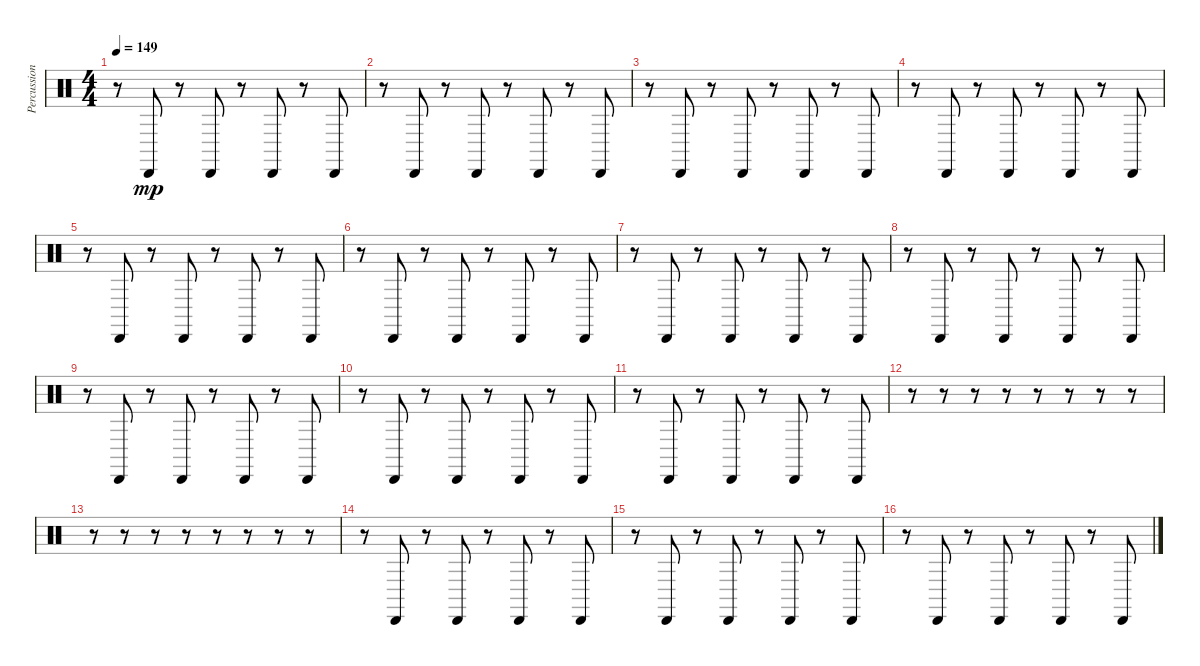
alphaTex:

\track ("Percussion 2" "Percussion") {instrument percussion}
\staff {score}
\articulation defaults
\ts (4 4)
\tempo 149
\clef neutral
\ks c
r.8{dy mp} "Cabasa (hit)".8 r.8 "Cabasa (hit)".8 r.8 "Cabasa (hit)".8 r.8 "Cabasa (hit)".8 |
r.8 "Cabasa (hit)".8 r.8 "Cabasa (hit)".8 r.8 "Cabasa (hit)".8 r.8 "Cabasa (hit)".8 |
r.8 "Cabasa (hit)".8 r.8 "Cabasa (hit)".8 r.8 "Cabasa (hit)".8 r.8 "Cabasa (hit)".8 |
r.8 "Cabasa (hit)".8 r.8 "Cabasa (hit)".8 r.8 "Cabasa (hit)".8 r.8 "Cabasa (hit)".8 |
r.8 "Cabasa (hit)".8 r.8 "Cabasa (hit)".8 r.8 "Cabasa (hit)".8 r.8 "Cabasa (hit)".8 |
r.8 "Cabasa (hit)".8 r.8 "Cabasa (hit)".8 r.8 "Cabasa (hit)".8 r.8 "Cabasa (hit)".8 |
r.8 "Cabasa (hit)".8 r.8 "Cabasa (hit)".8 r.8 "Cabasa (hit)".8 r.8 "Cabasa (hit)".8 |
r.8 "Cabasa (hit)".8 r.8 "Cabasa (hit)".8 r.8 "Cabasa (hit)".8 r.8 "Cabasa (hit)".8 |
r.8 "Cabasa (hit)".8 r.8 "Cabasa (hit)".8 r.8 "Cabasa (hit)".8 r.8 "Cabasa (hit)".8 |
r.8 "Cabasa (hit)".8 r.8 "Cabasa (hit)".8 r.8 "Cabasa (hit)".8 r.8 "Cabasa (hit)".8 |
r.8 "Cabasa (hit)".8 r.8 "Cabasa (hit)".8 r.8 "Cabasa (hit)".8 r.8 "Cabasa (hit)".8 |
r.8 r.8 r.8 r.8 r.8 r.8 r.8 r.8 |
r.8 r.8 r.8 r.8 r.8 r.8 r.8 r.8 |
r.8 "Cabasa (hit)".8 r.8 "Cabasa (hit)".8 r.8 "Cabasa (hit)".8 r.8 "Cabasa (hit)".8 |
r.8 "Cabasa (hit)".8 r.8 "Cabasa (hit)".8 r.8 "Cabasa (hit)".8 r.8 "Cabasa (hit)".8 |
r.8 "Cabasa (hit)".8 r.8 "Cabasa (hit)".8 r.8 "Cabasa (hit)".8 r.8 "Cabasa (hit)".8
